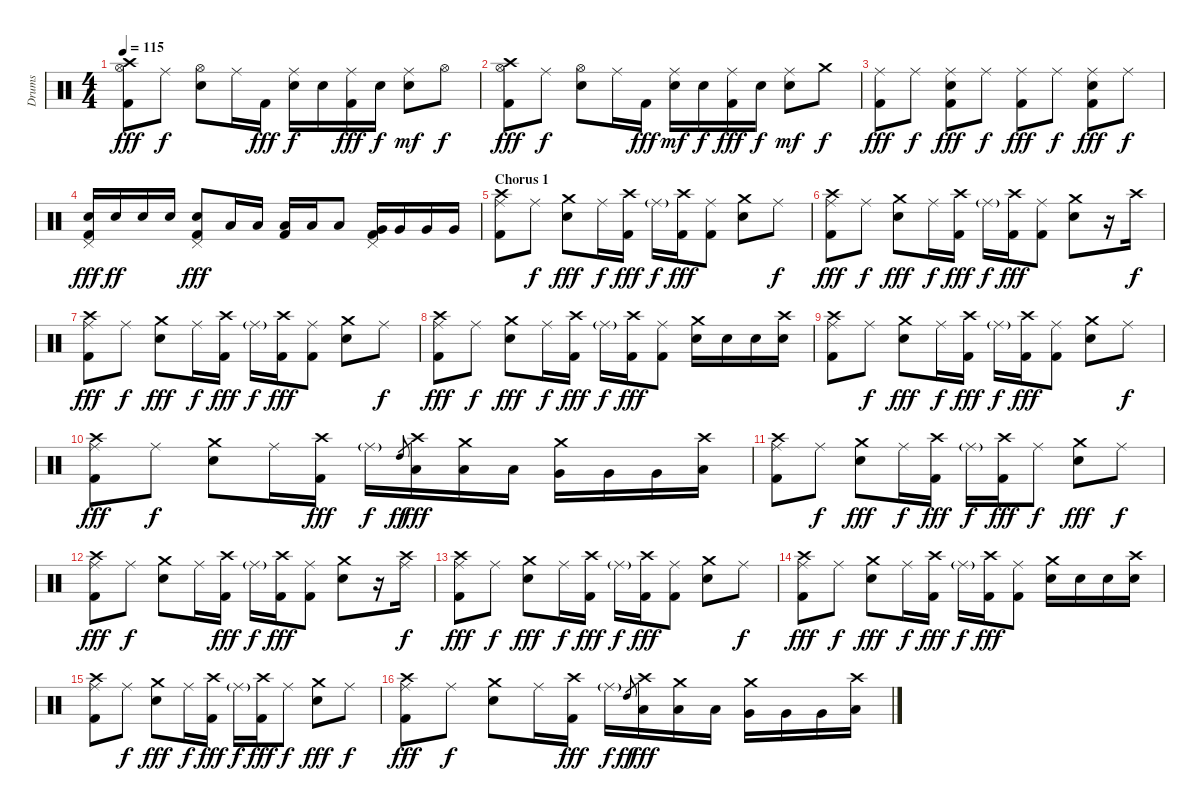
\track ("Drums" "Drums") {instrument percussion}
\staff {score}
\articulation defaults
\ts (4 4)
\tempo 115
\clef neutral
\ks c
("Hi-Hat (open)" "Crash high (hit)" "Kick (hit) 2").8{dy fff} "Ride (middle)".8{dy f} ("Hi-Hat (open)" "Electric Snare (hit)").8 "Ride (middle)".16 "Kick (hit) 2".16{dy fff} ("Ride (middle)" "Electric Snare (hit)").16{dy f} "Electric Snare (hit)".16 ("Ride (middle)" "Kick (hit) 2").16{dy fff} "Electric Snare (hit)".16{dy f} ("Ride (middle)" "Snare (hit) 2").8{dy mf} "Hi-Hat (open)".8{dy f} |
("Hi-Hat (open)" "Crash high (hit)" "Kick (hit) 2").8{dy fff} "Ride (middle)".8{dy f} ("Hi-Hat (open)" "Electric Snare (hit)").8 "Ride (middle)".16 "Kick (hit) 2".16{dy fff} ("Ride (middle)" "Snare (hit) 2").16{dy mf} "Electric Snare (hit)".16{dy f} ("Ride (middle)" "Kick (hit) 2").16{dy fff} "Electric Snare (hit)".16{dy f} ("Ride (middle)" "Snare (hit) 2").8{dy mf} "Crash medium (hit)".8{dy f} |
("Ride (middle)" "Kick (hit) 2").8{dy fff} "Ride (middle)".8{dy f} ("Ride (middle)" "Electric Snare (hit)" "Kick (hit) 2").8{dy fff} "Ride (middle)".8{dy f} ("Ride (middle)" "Kick (hit) 2").8{dy fff} "Ride (middle)".8{dy f} ("Ride (middle)" "Electric Snare (hit)" "Kick (hit) 2").8{dy fff} "Ride (middle)".8{dy f} |
("Pedal Hi-Hat (hit)" "Electric Snare (hit)" "Kick (hit) 2").16{dy fff volume 11} "Electric Snare (hit)".16{dy ff} "Electric Snare (hit)".16 "Electric Snare (hit)".16 ("Pedal Hi-Hat (hit)" "Electric Snare (hit)" "Kick (hit) 2").8{dy fff} "Low Tom (hit)".16{volume 15} "Low Tom (hit)".16 ("Low Tom (hit)" "Kick (hit) 2").16 "Low Tom (hit)".16 "Low Tom (hit)".8 ("Pedal Hi-Hat (hit)" "Very Low Tom (hit)" "Kick (hit) 2").16 "Very Low Tom (hit)".16 "Very Low Tom (hit)".16 "Very Low Tom (hit)".16 |
\section ("" "Chorus 1")
("Ride (middle)" "Crash high (hit)" "Kick (hit) 2").8{volume 10} "Ride (middle)".8{dy f} ("Crash medium (hit)" "Electric Snare (hit)").8{dy fff} "Ride (middle)".16{dy f} ("Crash high (hit)" "Kick (hit) 2").16{dy fff} "Ride (middle)"{g}.16{dy f} ("Crash high (hit)" "Kick (hit) 2").16{dy fff} ("Ride (middle)" "Kick (hit) 2").8 ("Crash medium (hit)" "Electric Snare (hit)").8 "Ride (middle)".8{dy f} |
("Ride (middle)" "Crash high (hit)" "Kick (hit) 2").8{dy fff} "Ride (middle)".8{dy f} ("Crash medium (hit)" "Electric Snare (hit)").8{dy fff} "Ride (middle)".16{dy f} ("Crash high (hit)" "Kick (hit) 2").16{dy fff} "Ride (middle)"{g}.16{dy f} ("Crash high (hit)" "Kick (hit) 2").16{dy fff} ("Ride (middle)" "Kick (hit) 2").8 ("Crash medium (hit)" "Electric Snare (hit)").8 r.16 "Crash high (hit)".16{dy f} |
("Ride (middle)" "Crash high (hit)" "Kick (hit) 2").8{dy fff} "Ride (middle)".8{dy f} ("Crash medium (hit)" "Electric Snare (hit)").8{dy fff} "Ride (middle)".16{dy f} ("Crash high (hit)" "Kick (hit) 2").16{dy fff} "Ride (middle)"{g}.16{dy f} ("Crash high (hit)" "Kick (hit) 2").16{dy fff} ("Ride (middle)" "Kick (hit) 2").8 ("Crash medium (hit)" "Electric Snare (hit)").8 "Ride (middle)".8{dy f} |
("Ride (middle)" "Crash high (hit)" "Kick (hit) 2").8{dy fff} "Ride (middle)".8{dy f} ("Crash medium (hit)" "Electric Snare (hit)").8{dy fff} "Ride (middle)".16{dy f} ("Crash high (hit)" "Kick (hit) 2").16{dy fff} "Ride (middle)"{g}.16{dy f} ("Crash high (hit)" "Kick (hit) 2").16{dy fff} ("Ride (middle)" "Kick (hit) 2").8 ("Crash medium (hit)" "Electric Snare (hit)").16 "Electric Snare (hit)".16 "Electric Snare (hit)".16 ("Crash high (hit)" "Electric Snare (hit)").16 |
("Ride (middle)" "Crash high (hit)" "Kick (hit) 2").8 "Ride (middle)".8{dy f} ("Crash medium (hit)" "Electric Snare (hit)").8{dy fff} "Ride (middle)".16{dy f} ("Crash high (hit)" "Kick (hit) 2").16{dy fff} "Ride (middle)"{g}.16{dy f} ("Crash high (hit)" "Kick (hit) 2").16{dy fff} ("Ride (middle)" "Kick (hit) 2").8 ("Crash medium (hit)" "Electric Snare (hit)").8 "Ride (middle)".8{dy f} |
("Ride (middle)" "Crash high (hit)" "Kick (hit) 2").8{dy fff} "Ride (middle)".8{dy f} ("Crash medium (hit)" "Snare (hit) 2").8 "Ride (middle)".16 ("Crash high (hit)" "Kick (hit) 2").16{dy fff} "Ride (middle)"{g}.16{dy f} "High Tom (hit)".8{gr dy ff} ("Crash high (hit)" "Low Tom (hit)").16{dy fff} ("Crash medium (hit)" "Low Tom (hit)").16 "Low Tom (hit)".16 ("Crash medium (hit)" "Very Low Tom (hit)").16 "Very Low Tom (hit)".16 "Very Low Tom (hit)".16 ("Crash high (hit)" "Low Floor Tom (hit)").16 |
("Ride (middle)" "Crash high (hit)" "Kick (hit) 2").8 "Ride (middle)".8{dy f} ("Crash medium (hit)" "Electric Snare (hit)").8{dy fff} "Ride (middle)".16{dy f} ("Crash high (hit)" "Kick (hit) 2").16{dy fff} "Ride (middle)"{g}.16{dy f} ("Crash high (hit)" "Kick (hit) 2").16{dy fff} "Ride (middle)".8{dy f} ("Crash medium (hit)" "Electric Snare (hit)").8{dy fff} "Ride (middle)".8{dy f} |
("Ride (middle)" "Crash high (hit)" "Kick (hit) 2").8{dy fff} "Ride (middle)".8{dy f} ("Crash medium (hit)" "Snare (hit) 2").8 "Ride (middle)".16 ("Crash high (hit)" "Kick (hit) 2").16{dy fff} "Ride (middle)"{g}.16{dy f} ("Crash high (hit)" "Kick (hit) 2").16{dy fff} ("Ride (middle)" "Kick (hit) 2").8 ("Crash medium (hit)" "Electric Snare (hit)").8 r.16 ("Ride (middle)" "Crash high (hit)").16{dy f} |
("Ride (middle)" "Crash high (hit)" "Kick (hit) 2").8{dy fff} "Ride (middle)".8{dy f} ("Crash medium (hit)" "Electric Snare (hit)").8{dy fff} "Ride (middle)".16{dy f} ("Crash high (hit)" "Kick (hit) 2").16{dy fff} "Ride (middle)"{g}.16{dy f} ("Crash high (hit)" "Kick (hit) 2").16{dy fff} ("Ride (middle)" "Kick (hit) 2").8 ("Crash medium (hit)" "Electric Snare (hit)").8 "Ride (middle)".8{dy f} |
("Ride (middle)" "Crash high (hit)" "Kick (hit) 2").8{dy fff} "Ride (middle)".8{dy f} ("Crash medium (hit)" "Electric Snare (hit)").8{dy fff} "Ride (middle)".16{dy f} ("Crash high (hit)" "Kick (hit) 2").16{dy fff} "Ride (middle)"{g}.16{dy f} ("Crash high (hit)" "Kick (hit) 2").16{dy fff} ("Ride (middle)" "Kick (hit) 2").8 ("Crash medium (hit)" "Electric Snare (hit)").16 "Electric Snare (hit)".16 "Electric Snare (hit)".16 ("Crash high (hit)" "Electric Snare (hit)").16 |
("Ride (middle)" "Crash high (hit)" "Kick (hit) 2").8 "Ride (middle)".8{dy f} ("Crash medium (hit)" "Electric Snare (hit)").8{dy fff} "Ride (middle)".16{dy f} ("Crash high (hit)" "Kick (hit) 2").16{dy fff} "Ride (middle)"{g}.16{dy f} ("Crash high (hit)" "Kick (hit) 2").16{dy fff} "Ride (middle)".8{dy f} ("Crash medium (hit)" "Electric Snare (hit)").8{dy fff} "Ride (middle)".8{dy f} |
("Ride (middle)" "Crash high (hit)" "Kick (hit) 2").8{dy fff} "Ride (middle)".8{dy f} ("Crash medium (hit)" "Snare (hit) 2").8 "Ride (middle)".16 ("Crash high (hit)" "Kick (hit) 2").16{dy fff} "Ride (middle)"{g}.16{dy f} "High Tom (hit)".8{gr dy ff} ("Crash high (hit)" "Low Tom (hit)").16{dy fff} ("Crash medium (hit)" "Low Tom (hit)").16 "Low Tom (hit)".16 ("Crash medium (hit)" "Very Low Tom (hit)").16 "Very Low Tom (hit)".16 "Very Low Tom (hit)".16 ("Crash high (hit)" "Low Floor Tom (hit)").16
